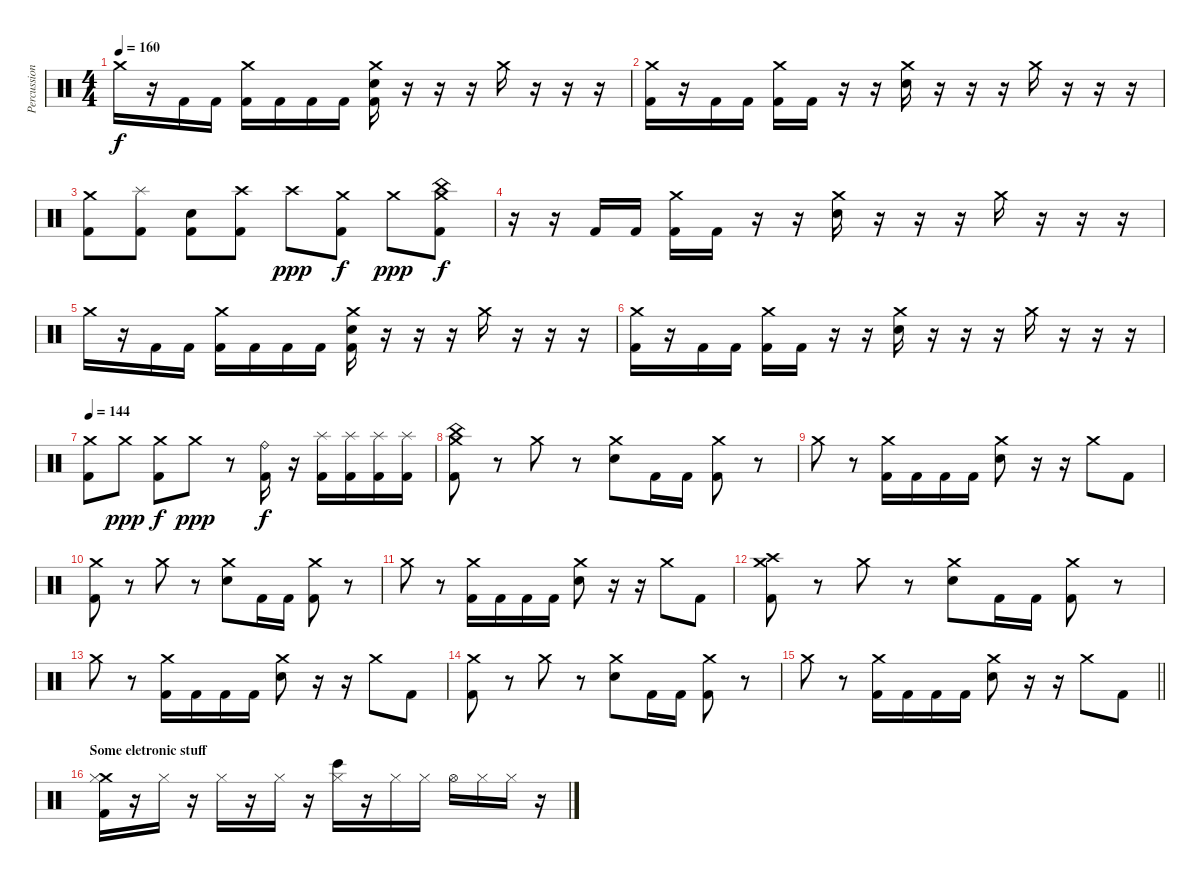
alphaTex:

\track ("Percussion" "Percussion") {instrument percussion}
\staff {score}
\articulation defaults
\ts (4 4)
\tempo 160
\clef neutral
\ks c "Crash medium (hit)".16{dy f}
r.16 "Kick (hit) 2".16 "Kick (hit) 2".16 ("Crash medium (hit)" "Kick (hit) 2").16 "Kick (hit) 2".16 "Kick (hit) 2".16 "Kick (hit) 2".16 ("Crash medium (hit)" "Electric Snare (hit)" "Kick (hit) 2").16 r.16 r.16 r.16 "Crash medium (hit)".16 r.16 r.16 r.16 |
("Crash medium (hit)" "Kick (hit) 2").16 r.16 "Kick (hit) 2".16 "Kick (hit) 2".16 ("Crash medium (hit)" "Kick (hit) 2").16 "Kick (hit) 2".16 r.16 r.16 ("Crash medium (hit)" "Electric Snare (hit)").16 r.16 r.16 r.16 "Crash medium (hit)".16 r.16 r.16 r.16 |
("Crash medium (hit)" "Kick (hit) 2").8 ("Splash (hit)" "Kick (hit) 2").8 ("Electric Snare (hit)" "Kick (hit) 2").8 ("Crash high (hit)" "Kick (hit) 2").8 "Crash high (hit)".8{dy ppp} ("Crash medium (hit)" "Kick (hit) 2").8{dy f} "Crash medium (hit)".8{dy ppp} ("China (hit)" "Crash medium (hit)" "Kick (hit) 2").8{dy f} |
r.16 r.16 "Kick (hit) 2".16 "Kick (hit) 2".16 ("Crash medium (hit)" "Kick (hit) 2").16 "Kick (hit) 2".16 r.16 r.16 ("Crash medium (hit)" "Electric Snare (hit)").16 r.16 r.16 r.16 "Crash medium (hit)".16 r.16 r.16 r.16 |
"Crash medium (hit)".16 r.16 "Kick (hit) 2".16 "Kick (hit) 2".16 ("Crash medium (hit)" "Kick (hit) 2").16 "Kick (hit) 2".16 "Kick (hit) 2".16 "Kick (hit) 2".16 ("Crash medium (hit)" "Electric Snare (hit)" "Kick (hit) 2").16 r.16 r.16 r.16 "Crash medium (hit)".16 r.16 r.16 r.16 |
("Crash medium (hit)" "Kick (hit) 2").16 r.16 "Kick (hit) 2".16 "Kick (hit) 2".16 ("Crash medium (hit)" "Kick (hit) 2").16 "Kick (hit) 2".16 r.16 r.16 ("Crash medium (hit)" "Electric Snare (hit)").16 r.16 r.16 r.16 "Crash medium (hit)".16 r.16 r.16 r.16 |
\tempo 144
("Crash medium (hit)" "Kick (hit) 2").8 "Crash medium (hit)".8{dy ppp} ("Crash medium (hit)" "Kick (hit) 2").8{dy f} "Crash medium (hit)".8{dy ppp} r.8 ("Ride (bell)" "Kick (hit) 2").16{dy f} r.16 ("Splash (hit)" "Kick (hit) 2").16 ("Splash (hit)" "Kick (hit) 2").16 ("Splash (hit)" "Kick (hit) 2").16 ("Splash (hit)" "Kick (hit) 2").16 |
("Crash medium (hit)" "China (hit)" "Kick (hit) 2").8 r.8 "Crash medium (hit)".8 r.8 ("Crash medium (hit)" "Electric Snare (hit)").8 "Kick (hit) 2".16 "Kick (hit) 2".16 ("Crash medium (hit)" "Kick (hit) 2").8 r.8 |
"Crash medium (hit)".8 r.8 ("Crash medium (hit)" "Kick (hit) 2").16 "Kick (hit) 2".16 "Kick (hit) 2".16 "Kick (hit) 2".16 ("Crash medium (hit)" "Electric Snare (hit)").8 r.16 r.16 "Crash medium (hit)".8 "Kick (hit) 2".8 |
("Crash medium (hit)" "Kick (hit) 2").8 r.8 "Crash medium (hit)".8 r.8 ("Crash medium (hit)" "Electric Snare (hit)").8 "Kick (hit) 2".16 "Kick (hit) 2".16 ("Crash medium (hit)" "Kick (hit) 2").8 r.8 |
"Crash medium (hit)".8 r.8 ("Crash medium (hit)" "Kick (hit) 2").16 "Kick (hit) 2".16 "Kick (hit) 2".16 "Kick (hit) 2".16 ("Crash medium (hit)" "Electric Snare (hit)").8 r.16 r.16 "Crash medium (hit)".8 "Kick (hit) 2".8 |
("Crash medium (hit)" "Crash high (hit)" "Kick (hit) 2").8 r.8 "Crash medium (hit)".8 r.8 ("Crash medium (hit)" "Electric Snare (hit)").8 "Kick (hit) 2".16 "Kick (hit) 2".16 ("Crash medium (hit)" "Kick (hit) 2").8 r.8 |
"Crash medium (hit)".8 r.8 ("Crash medium (hit)" "Kick (hit) 2").16 "Kick (hit) 2".16 "Kick (hit) 2".16 "Kick (hit) 2".16 ("Crash medium (hit)" "Electric Snare (hit)").8 r.16 r.16 "Crash medium (hit)".8 "Kick (hit) 2".8 |
("Crash medium (hit)" "Kick (hit) 2").8 r.8 "Crash medium (hit)".8 r.8 ("Crash medium (hit)" "Electric Snare (hit)").8 "Kick (hit) 2".16 "Kick (hit) 2".16 ("Crash medium (hit)" "Kick (hit) 2").8 r.8 |
\barLineRight lightlight "Crash medium (hit)".8
r.8 ("Crash medium (hit)" "Kick (hit) 2").16 "Kick (hit) 2".16 "Kick (hit) 2".16 "Kick (hit) 2".16 ("Crash medium (hit)" "Electric Snare (hit)").8 r.16 r.16 "Crash medium (hit)".8 "Kick (hit) 2".8 |
\section ("" "Some eletronic stuff")
("Crash medium (hit)" "Hi-Hat (closed)" "Kick (hit) 2").16 r.16 "Hi-Hat (closed)".16 r.16 "Hi-Hat (closed)".16 r.16 "Hi-Hat (closed)".16 r.16 ("Hi-Hat (closed)" "Bongo High (hit)").16 r.16 "Hi-Hat (closed)".16 "Hi-Hat (closed)".16 "Hi-Hat (open)".16 "Hi-Hat (closed)".16 "Hi-Hat (closed)".16 r.16
